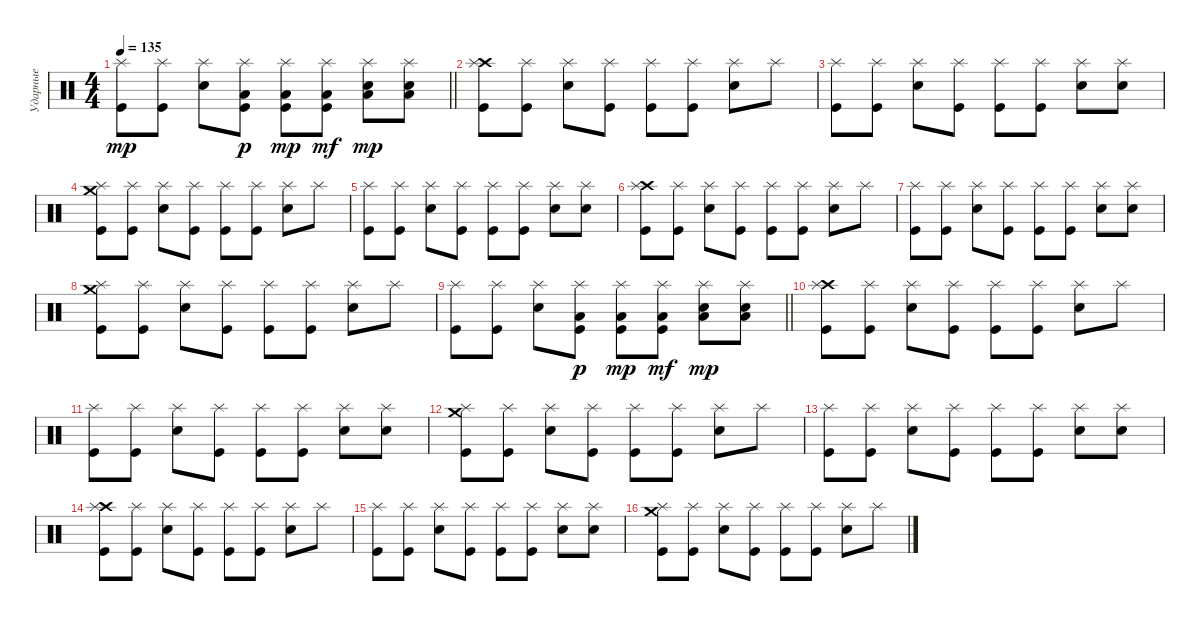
\track ("Ударные" "Ударные") {instrument percussion}
\staff
\articulation defaults
\ts (4 4)
\tempo 135
\clef neutral
\barLineRight lightlight
\ks c
("Splash (hit)" "Kick (hit)").8{dy mp} ("Splash (hit)" "Kick (hit)").8 ("Splash (hit)" "Snare (hit) 2").8 ("Splash (hit)" "Low Floor Tom (hit)" "Kick (hit)").8{dy p} ("Splash (hit)" "Low Floor Tom (hit)" "Kick (hit)").8{dy mp} ("Splash (hit)" "Low Floor Tom (hit)" "Kick (hit)").8{dy mf} ("Splash (hit)" "Low Floor Tom (hit)" "Snare (hit) 2").8{dy mp} ("Splash (hit)" "Low Floor Tom (hit)" "Snare (hit) 2").8 |
("Crash high (hit)" "Splash (hit)" "Kick (hit)").8 ("Splash (hit)" "Kick (hit)").8 ("Splash (hit)" "Snare (hit) 2").8 ("Splash (hit)" "Kick (hit)").8 ("Splash (hit)" "Kick (hit)").8 ("Splash (hit)" "Kick (hit)").8 ("Splash (hit)" "Snare (hit) 2").8 "Splash (hit)".8 |
("Splash (hit)" "Kick (hit)").8 ("Splash (hit)" "Kick (hit)").8 ("Splash (hit)" "Snare (hit) 2").8 ("Splash (hit)" "Kick (hit)").8 ("Splash (hit)" "Kick (hit)").8 ("Splash (hit)" "Kick (hit)").8 ("Splash (hit)" "Snare (hit) 2").8 ("Splash (hit)" "Snare (hit) 2").8 |
("Crash medium (hit)" "Splash (hit)" "Kick (hit)").8 ("Splash (hit)" "Kick (hit)").8 ("Splash (hit)" "Snare (hit) 2").8 ("Splash (hit)" "Kick (hit)").8 ("Splash (hit)" "Kick (hit)").8 ("Splash (hit)" "Kick (hit)").8 ("Splash (hit)" "Snare (hit) 2").8 "Splash (hit)".8 |
("Splash (hit)" "Kick (hit)").8 ("Splash (hit)" "Kick (hit)").8 ("Splash (hit)" "Snare (hit) 2").8 ("Splash (hit)" "Kick (hit)").8 ("Splash (hit)" "Kick (hit)").8 ("Splash (hit)" "Kick (hit)").8 ("Splash (hit)" "Snare (hit) 2").8 ("Splash (hit)" "Snare (hit) 2").8 |
("Crash high (hit)" "Splash (hit)" "Kick (hit)").8 ("Splash (hit)" "Kick (hit)").8 ("Splash (hit)" "Snare (hit) 2").8 ("Splash (hit)" "Kick (hit)").8 ("Splash (hit)" "Kick (hit)").8 ("Splash (hit)" "Kick (hit)").8 ("Splash (hit)" "Snare (hit) 2").8 "Splash (hit)".8 |
("Splash (hit)" "Kick (hit)").8 ("Splash (hit)" "Kick (hit)").8 ("Splash (hit)" "Snare (hit) 2").8 ("Splash (hit)" "Kick (hit)").8 ("Splash (hit)" "Kick (hit)").8 ("Splash (hit)" "Kick (hit)").8 ("Splash (hit)" "Snare (hit) 2").8 ("Splash (hit)" "Snare (hit) 2").8 |
("Crash medium (hit)" "Splash (hit)" "Kick (hit)").8 ("Splash (hit)" "Kick (hit)").8 ("Splash (hit)" "Snare (hit) 2").8 ("Splash (hit)" "Kick (hit)").8 ("Splash (hit)" "Kick (hit)").8 ("Splash (hit)" "Kick (hit)").8 ("Splash (hit)" "Snare (hit) 2").8 "Splash (hit)".8 |
\barLineRight lightlight
("Splash (hit)" "Kick (hit)").8 ("Splash (hit)" "Kick (hit)").8 ("Splash (hit)" "Snare (hit) 2").8 ("Splash (hit)" "Low Floor Tom (hit)" "Kick (hit)").8{dy p} ("Splash (hit)" "Low Floor Tom (hit)" "Kick (hit)").8{dy mp} ("Splash (hit)" "Low Floor Tom (hit)" "Kick (hit)").8{dy mf} ("Splash (hit)" "Low Floor Tom (hit)" "Snare (hit) 2").8{dy mp} ("Splash (hit)" "Low Floor Tom (hit)" "Snare (hit) 2").8 |
("Crash high (hit)" "Splash (hit)" "Kick (hit)").8 ("Splash (hit)" "Kick (hit)").8 ("Splash (hit)" "Snare (hit) 2").8 ("Splash (hit)" "Kick (hit)").8 ("Splash (hit)" "Kick (hit)").8 ("Splash (hit)" "Kick (hit)").8 ("Splash (hit)" "Snare (hit) 2").8 "Splash (hit)".8 |
("Splash (hit)" "Kick (hit)").8 ("Splash (hit)" "Kick (hit)").8 ("Splash (hit)" "Snare (hit) 2").8 ("Splash (hit)" "Kick (hit)").8 ("Splash (hit)" "Kick (hit)").8 ("Splash (hit)" "Kick (hit)").8 ("Splash (hit)" "Snare (hit) 2").8 ("Splash (hit)" "Snare (hit) 2").8 |
("Crash medium (hit)" "Splash (hit)" "Kick (hit)").8 ("Splash (hit)" "Kick (hit)").8 ("Splash (hit)" "Snare (hit) 2").8 ("Splash (hit)" "Kick (hit)").8 ("Splash (hit)" "Kick (hit)").8 ("Splash (hit)" "Kick (hit)").8 ("Splash (hit)" "Snare (hit) 2").8 "Splash (hit)".8 |
("Splash (hit)" "Kick (hit)").8 ("Splash (hit)" "Kick (hit)").8 ("Splash (hit)" "Snare (hit) 2").8 ("Splash (hit)" "Kick (hit)").8 ("Splash (hit)" "Kick (hit)").8 ("Splash (hit)" "Kick (hit)").8 ("Splash (hit)" "Snare (hit) 2").8 ("Splash (hit)" "Snare (hit) 2").8 |
("Crash high (hit)" "Splash (hit)" "Kick (hit)").8 ("Splash (hit)" "Kick (hit)").8 ("Splash (hit)" "Snare (hit) 2").8 ("Splash (hit)" "Kick (hit)").8 ("Splash (hit)" "Kick (hit)").8 ("Splash (hit)" "Kick (hit)").8 ("Splash (hit)" "Snare (hit) 2").8 "Splash (hit)".8 |
("Splash (hit)" "Kick (hit)").8 ("Splash (hit)" "Kick (hit)").8 ("Splash (hit)" "Snare (hit) 2").8 ("Splash (hit)" "Kick (hit)").8 ("Splash (hit)" "Kick (hit)").8 ("Splash (hit)" "Kick (hit)").8 ("Splash (hit)" "Snare (hit) 2").8 ("Splash (hit)" "Snare (hit) 2").8 |
("Crash medium (hit)" "Splash (hit)" "Kick (hit)").8 ("Splash (hit)" "Kick (hit)").8 ("Splash (hit)" "Snare (hit) 2").8 ("Splash (hit)" "Kick (hit)").8 ("Splash (hit)" "Kick (hit)").8 ("Splash (hit)" "Kick (hit)").8 ("Splash (hit)" "Snare (hit) 2").8 "Splash (hit)".8
